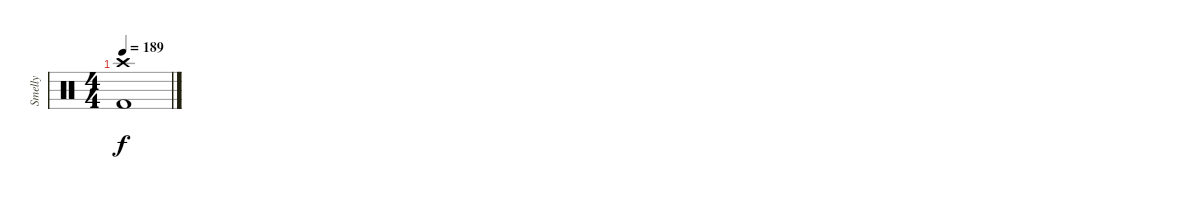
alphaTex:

\track ("Smelly" "Smelly") {instrument percussion}
\staff {score}
\articulation defaults
\ts (4 4)
\tempo 189
\clef neutral
\ks c
("Crash high (hit)" "Kick (hit) 2").1{dy f}
